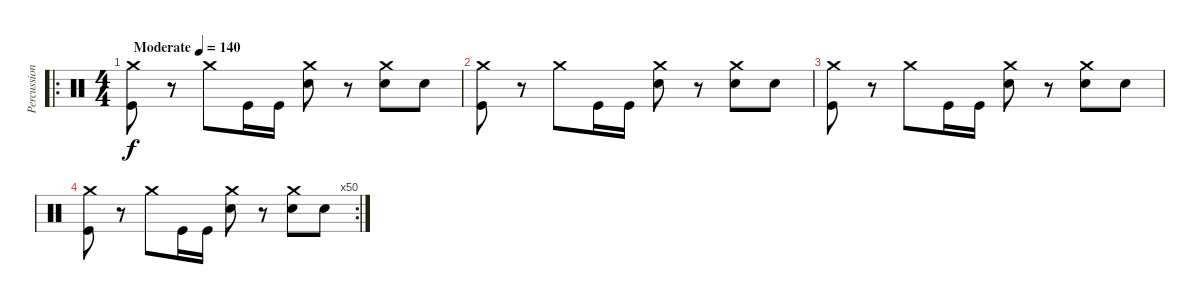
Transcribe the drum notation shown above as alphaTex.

\track ("Percussion" "Percussion") {instrument percussion}
\staff {score}
\articulation defaults
\ro
\ts (4 4)
\tempo (140 "Moderate")
\clef neutral
\ks c
("Crash medium (hit)" "Kick (hit)").8{dy f} r.8 "Crash medium (hit)".8 "Kick (hit)".16 "Kick (hit)".16 ("Snare (hit) 2" "Crash medium (hit)").8 r.8 ("Crash medium (hit)" "Snare (hit) 2").8 "Snare (hit) 2".8 |
("Crash medium (hit)" "Kick (hit)").8 r.8 "Crash medium (hit)".8 "Kick (hit)".16 "Kick (hit)".16 ("Snare (hit) 2" "Crash medium (hit)").8 r.8 ("Crash medium (hit)" "Snare (hit) 2").8 "Snare (hit) 2".8 |
("Crash medium (hit)" "Kick (hit)").8 r.8 "Crash medium (hit)".8 "Kick (hit)".16 "Kick (hit)".16 ("Snare (hit) 2" "Crash medium (hit)").8 r.8 ("Crash medium (hit)" "Snare (hit) 2").8 "Snare (hit) 2".8 |
\rc 50
("Crash medium (hit)" "Kick (hit)").8 r.8 "Crash medium (hit)".8 "Kick (hit)".16 "Kick (hit)".16 ("Snare (hit) 2" "Crash medium (hit)").8 r.8 ("Crash medium (hit)" "Snare (hit) 2").8 "Snare (hit) 2".8
